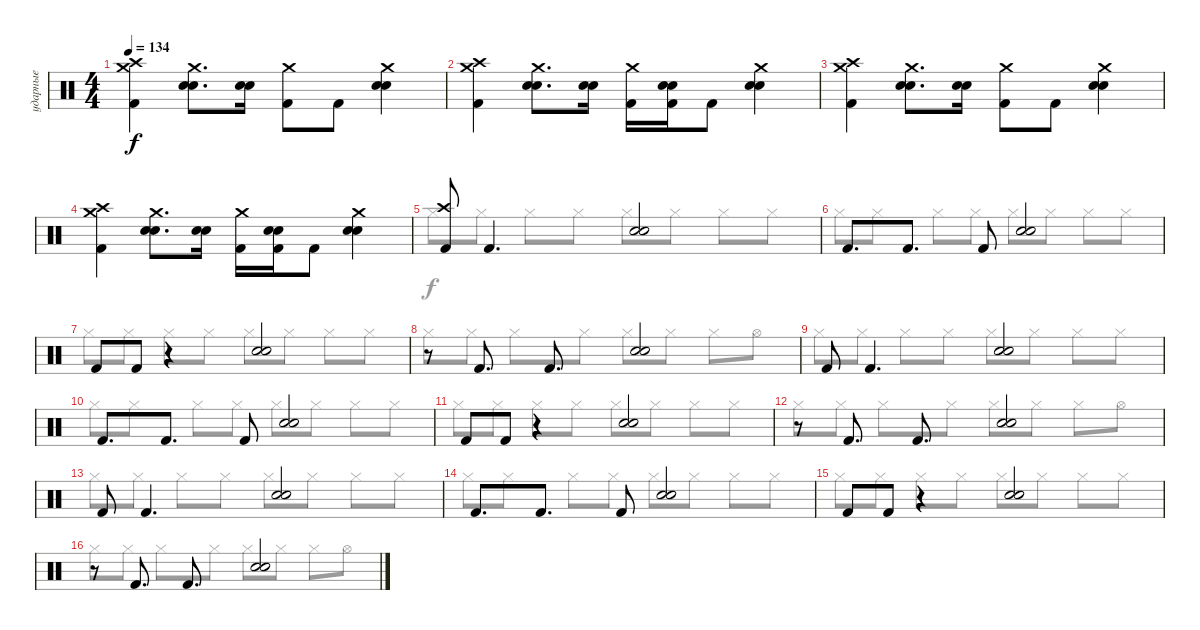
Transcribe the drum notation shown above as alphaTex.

\track ("ударные" "ударные") {instrument percussion}
\staff {score}
\articulation defaults
\voice
\ts (4 4)
\tempo 134
\clef neutral
\ks c
("Crash high (hit)" "Crash medium (hit)" "Kick (hit) 2").4{dy f} ("Crash medium (hit)" "Snare (hit) 2" "Electric Snare (hit)").8{d} ("Snare (hit) 2" "Electric Snare (hit)").16 ("Crash medium (hit)" "Kick (hit) 2").8 "Kick (hit) 2".8 ("Crash medium (hit)" "Snare (hit) 2" "Electric Snare (hit)").4 |
("Crash high (hit)" "Crash medium (hit)" "Kick (hit) 2").4 ("Crash medium (hit)" "Snare (hit) 2" "Electric Snare (hit)").8{d} ("Snare (hit) 2" "Electric Snare (hit)").16 ("Crash medium (hit)" "Kick (hit) 2").16 ("Snare (hit) 2" "Electric Snare (hit)" "Kick (hit) 2").16 "Kick (hit) 2".8 ("Crash medium (hit)" "Snare (hit) 2" "Electric Snare (hit)").4 |
("Crash high (hit)" "Crash medium (hit)" "Kick (hit) 2").4 ("Crash medium (hit)" "Snare (hit) 2" "Electric Snare (hit)").8{d} ("Snare (hit) 2" "Electric Snare (hit)").16 ("Crash medium (hit)" "Kick (hit) 2").8 "Kick (hit) 2".8 ("Crash medium (hit)" "Snare (hit) 2" "Electric Snare (hit)").4 |
("Crash high (hit)" "Crash medium (hit)" "Kick (hit) 2").4 ("Crash medium (hit)" "Snare (hit) 2" "Electric Snare (hit)").8{d} ("Snare (hit) 2" "Electric Snare (hit)").16 ("Crash medium (hit)" "Kick (hit) 2").16 ("Snare (hit) 2" "Electric Snare (hit)" "Kick (hit) 2").16 "Kick (hit) 2".8 ("Crash medium (hit)" "Snare (hit) 2" "Electric Snare (hit)").4 |
("Crash high (hit)" "Kick (hit) 2").8 "Kick (hit) 2".4{d} ("Hand Clap (hit)" "Electric Snare (hit)").2 |
"Kick (hit) 2".8{d} "Kick (hit) 2".8{d} "Kick (hit) 2".8 ("Hand Clap (hit)" "Electric Snare (hit)").2 |
"Kick (hit) 2".8 "Kick (hit) 2".8 r.4 ("Hand Clap (hit)" "Electric Snare (hit)").2 |
r.8 "Kick (hit) 2".8{d} "Kick (hit) 2".8{d} ("Hand Clap (hit)" "Electric Snare (hit)").2 |
"Kick (hit) 2".8 "Kick (hit) 2".4{d} ("Hand Clap (hit)" "Electric Snare (hit)").2 |
"Kick (hit) 2".8{d} "Kick (hit) 2".8{d} "Kick (hit) 2".8 ("Hand Clap (hit)" "Electric Snare (hit)").2 |
"Kick (hit) 2".8 "Kick (hit) 2".8 r.4 ("Hand Clap (hit)" "Electric Snare (hit)").2 |
r.8 "Kick (hit) 2".8{d} "Kick (hit) 2".8{d} ("Hand Clap (hit)" "Electric Snare (hit)").2 |
"Kick (hit) 2".8 "Kick (hit) 2".4{d} ("Hand Clap (hit)" "Electric Snare (hit)").2 |
"Kick (hit) 2".8{d} "Kick (hit) 2".8{d} "Kick (hit) 2".8 ("Hand Clap (hit)" "Electric Snare (hit)").2 |
"Kick (hit) 2".8 "Kick (hit) 2".8 r.4 ("Hand Clap (hit)" "Electric Snare (hit)").2 |
r.8 "Kick (hit) 2".8{d} "Kick (hit) 2".8{d} ("Hand Clap (hit)" "Electric Snare (hit)").2
\voice
\clef neutral
\ottava regular
\simile none
\ks c
|
|
|
|
"Hi-Hat (closed)".8 "Hi-Hat (closed)".8 "Hi-Hat (closed)".8 "Hi-Hat (closed)".8 "Hi-Hat (closed)".8 "Hi-Hat (closed)".8 "Hi-Hat (closed)".8 "Hi-Hat (closed)".8 |
"Hi-Hat (closed)".8 "Hi-Hat (closed)".8 "Hi-Hat (closed)".8 "Hi-Hat (closed)".8 "Hi-Hat (closed)".8 "Hi-Hat (closed)".8 "Hi-Hat (closed)".8 "Hi-Hat (closed)".8 |
"Hi-Hat (closed)".8 "Hi-Hat (closed)".8 "Hi-Hat (closed)".8 "Hi-Hat (closed)".8 "Hi-Hat (closed)".8 "Hi-Hat (closed)".8 "Hi-Hat (closed)".8 "Hi-Hat (closed)".8 |
"Hi-Hat (closed)".8 "Hi-Hat (closed)".8 "Hi-Hat (closed)".8 "Hi-Hat (closed)".8 "Hi-Hat (closed)".8 "Hi-Hat (closed)".8 "Hi-Hat (closed)".8 "Hi-Hat (open)".8 |
"Hi-Hat (closed)".8 "Hi-Hat (closed)".8 "Hi-Hat (closed)".8 "Hi-Hat (closed)".8 "Hi-Hat (closed)".8 "Hi-Hat (closed)".8 "Hi-Hat (closed)".8 "Hi-Hat (closed)".8 |
"Hi-Hat (closed)".8 "Hi-Hat (closed)".8 "Hi-Hat (closed)".8 "Hi-Hat (closed)".8 "Hi-Hat (closed)".8 "Hi-Hat (closed)".8 "Hi-Hat (closed)".8 "Hi-Hat (closed)".8 |
"Hi-Hat (closed)".8 "Hi-Hat (closed)".8 "Hi-Hat (closed)".8 "Hi-Hat (closed)".8 "Hi-Hat (closed)".8 "Hi-Hat (closed)".8 "Hi-Hat (closed)".8 "Hi-Hat (closed)".8 |
"Hi-Hat (closed)".8 "Hi-Hat (closed)".8 "Hi-Hat (closed)".8 "Hi-Hat (closed)".8 "Hi-Hat (closed)".8 "Hi-Hat (closed)".8 "Hi-Hat (closed)".8 "Hi-Hat (open)".8 |
"Hi-Hat (closed)".8 "Hi-Hat (closed)".8 "Hi-Hat (closed)".8 "Hi-Hat (closed)".8 "Hi-Hat (closed)".8 "Hi-Hat (closed)".8 "Hi-Hat (closed)".8 "Hi-Hat (closed)".8 |
"Hi-Hat (closed)".8 "Hi-Hat (closed)".8 "Hi-Hat (closed)".8 "Hi-Hat (closed)".8 "Hi-Hat (closed)".8 "Hi-Hat (closed)".8 "Hi-Hat (closed)".8 "Hi-Hat (closed)".8 |
"Hi-Hat (closed)".8 "Hi-Hat (closed)".8 "Hi-Hat (closed)".8 "Hi-Hat (closed)".8 "Hi-Hat (closed)".8 "Hi-Hat (closed)".8 "Hi-Hat (closed)".8 "Hi-Hat (closed)".8 |
"Hi-Hat (closed)".8 "Hi-Hat (closed)".8 "Hi-Hat (closed)".8 "Hi-Hat (closed)".8 "Hi-Hat (closed)".8 "Hi-Hat (closed)".8 "Hi-Hat (closed)".8 "Hi-Hat (open)".8
